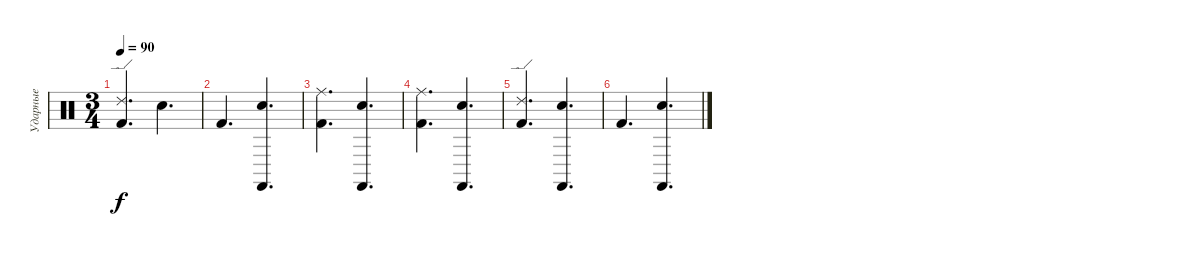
\track ("Ударные" "Ударные") {instrument percussion}
\staff {score}
\articulation defaults
\ts (3 4)
\tempo 90
\clef neutral
\ks c
("Ride (edge) 2" "Kick (hit) 2").4{d dy f} "Snare (hit) 2".4{d} |
"Kick (hit) 2".4{d} ("Castanets (hit)" "Snare (hit) 2").4{d} |
("Ride (middle)" "Kick (hit) 2").4{d} ("Castanets (hit)" "Snare (hit) 2").4{d} |
("Ride (middle)" "Kick (hit) 2").4{d} ("Castanets (hit)" "Snare (hit) 2").4{d} |
("Ride (edge) 2" "Kick (hit) 2").4{d} ("Castanets (hit)" "Snare (hit) 2").4{d} |
"Kick (hit) 2".4{d} ("Castanets (hit)" "Snare (hit) 2").4{d}
